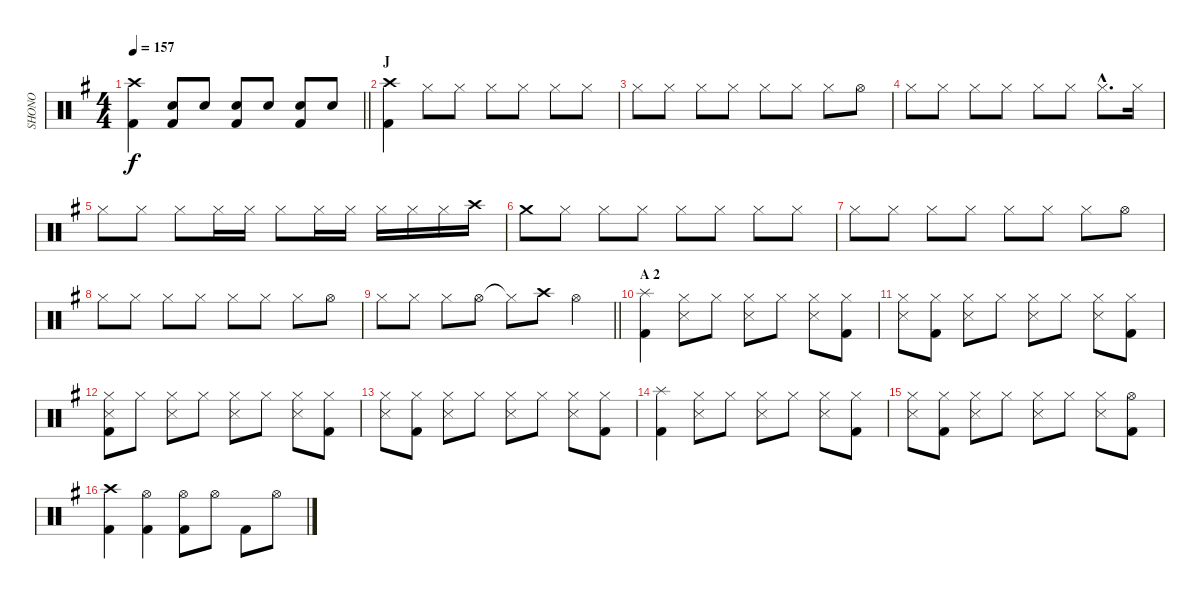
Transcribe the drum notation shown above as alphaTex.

\track ("SHONO" "SHONO") {instrument percussion}
\staff {score}
\articulation defaults
\ts (4 4)
\tempo 157
\clef neutral
\barLineRight lightlight
\ks g
("Crash high (hit)" "Kick (hit) 2").4{dy f} ("Snare (hit) 2" "Kick (hit) 2").8 "Snare (hit) 2".8 ("Snare (hit) 2" "Kick (hit) 2").8 "Snare (hit) 2".8 ("Snare (hit) 2" "Kick (hit) 2").8 "Snare (hit) 2".8 |
\section ("" "J")
("Crash high (hit)" "Kick (hit) 2").4 "Hi-Hat (closed)".8 "Hi-Hat (closed)".8 "Hi-Hat (closed)".8 "Hi-Hat (closed)".8 "Hi-Hat (closed)".8 "Hi-Hat (closed)".8 |
"Hi-Hat (closed)".8 "Hi-Hat (closed)".8 "Hi-Hat (closed)".8 "Hi-Hat (closed)".8 "Hi-Hat (closed)".8 "Hi-Hat (closed)".8 "Hi-Hat (closed)".8 "Hi-Hat (open)".8 |
"Hi-Hat (closed)".8 "Hi-Hat (closed)".8 "Hi-Hat (closed)".8 "Hi-Hat (closed)".8 "Hi-Hat (closed)".8 "Hi-Hat (closed)".8 "Hi-Hat (closed)"{hac}.8{d} "Hi-Hat (closed)".16 |
"Hi-Hat (closed)".8 "Hi-Hat (closed)".8 "Hi-Hat (closed)".8 "Hi-Hat (closed)".16 "Hi-Hat (closed)".16 "Hi-Hat (closed)".8 "Hi-Hat (closed)".16 "Hi-Hat (closed)".16 "Hi-Hat (closed)".16 "Hi-Hat (closed)".16 "Hi-Hat (closed)".16 "Crash high (hit)".16 |
"Crash medium (hit)".8 "Hi-Hat (closed)".8 "Hi-Hat (closed)".8 "Hi-Hat (closed)".8 "Hi-Hat (closed)".8 "Hi-Hat (closed)".8 "Hi-Hat (closed)".8 "Hi-Hat (closed)".8 |
"Hi-Hat (closed)".8 "Hi-Hat (closed)".8 "Hi-Hat (closed)".8 "Hi-Hat (closed)".8 "Hi-Hat (closed)".8 "Hi-Hat (closed)".8 "Hi-Hat (closed)".8 "Hi-Hat (open)".8 |
"Hi-Hat (closed)".8 "Hi-Hat (closed)".8 "Hi-Hat (closed)".8 "Hi-Hat (closed)".8 "Hi-Hat (closed)".8 "Hi-Hat (closed)".8 "Hi-Hat (closed)".8 "Hi-Hat (open)".8 |
\barLineRight lightlight "Hi-Hat (closed)".8 "Hi-Hat (closed)".8 "Hi-Hat (closed)".8 "Hi-Hat (open)".8 "Hi-Hat (closed)"{t}.8 "Crash high (hit)".8 "Hi-Hat (open)".4
|
\section ("" "A 2")
("Splash (hit)" "Kick (hit) 2").4 ("Hi-Hat (closed)" "Snare (side stick) 3").8 "Hi-Hat (closed)".8 ("Hi-Hat (closed)" "Snare (side stick) 3").8 "Hi-Hat (closed)".8 ("Hi-Hat (closed)" "Snare (side stick) 3").8 ("Hi-Hat (closed)" "Kick (hit) 2").8 |
("Hi-Hat (closed)" "Snare (side stick) 3").8 ("Hi-Hat (closed)" "Kick (hit) 2").8 ("Hi-Hat (closed)" "Snare (side stick) 3").8 "Hi-Hat (closed)".8 ("Hi-Hat (closed)" "Snare (side stick) 3").8 "Hi-Hat (closed)".8 ("Hi-Hat (closed)" "Snare (side stick) 3").8 ("Hi-Hat (closed)" "Kick (hit) 2").8 |
("Hi-Hat (closed)" "Snare (side stick) 3" "Kick (hit) 2").8 "Hi-Hat (closed)".8 ("Hi-Hat (closed)" "Snare (side stick) 3").8 "Hi-Hat (closed)".8 ("Hi-Hat (closed)" "Snare (side stick) 3").8 "Hi-Hat (closed)".8 ("Hi-Hat (closed)" "Snare (side stick) 3").8 ("Hi-Hat (closed)" "Kick (hit) 2").8 |
("Hi-Hat (closed)" "Snare (side stick) 3").8 ("Hi-Hat (closed)" "Kick (hit) 2").8 ("Hi-Hat (closed)" "Snare (side stick) 3").8 "Hi-Hat (closed)".8 ("Hi-Hat (closed)" "Snare (side stick) 3").8 "Hi-Hat (closed)".8 ("Hi-Hat (closed)" "Snare (side stick) 3").8 ("Hi-Hat (closed)" "Kick (hit) 2").8 |
("Splash (hit)" "Kick (hit) 2").4 ("Hi-Hat (closed)" "Snare (side stick) 3").8 "Hi-Hat (closed)".8 ("Hi-Hat (closed)" "Snare (side stick) 3").8 "Hi-Hat (closed)".8 ("Hi-Hat (closed)" "Snare (side stick) 3").8 ("Hi-Hat (closed)" "Kick (hit) 2").8 |
("Hi-Hat (closed)" "Snare (side stick) 3").8 ("Hi-Hat (closed)" "Kick (hit) 2").8 ("Hi-Hat (closed)" "Snare (side stick) 3").8 "Hi-Hat (closed)".8 ("Hi-Hat (closed)" "Snare (side stick) 3").8 "Hi-Hat (closed)".8 ("Hi-Hat (closed)" "Snare (side stick) 3").8 ("Hi-Hat (open)" "Kick (hit) 2").8 |
("Crash high (hit)" "Kick (hit) 2").4 ("Hi-Hat (open)" "Kick (hit) 2").4 ("Hi-Hat (open)" "Kick (hit) 2").8 "Hi-Hat (open)".8 "Kick (hit) 2".8 "Hi-Hat (open)".8
